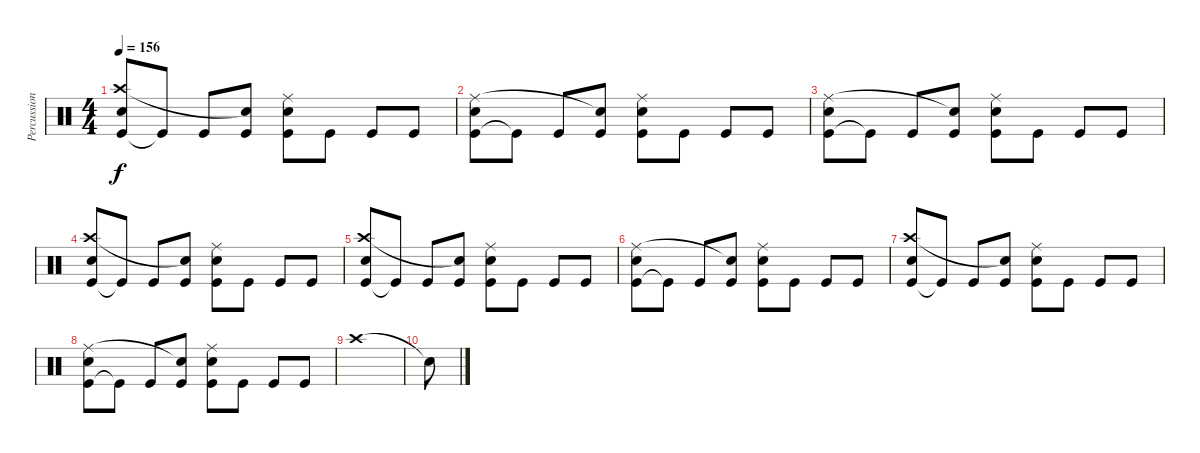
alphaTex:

\track ("Percussion" "Percussion") {instrument percussion}
\staff {score}
\articulation defaults
\ts (4 4)
\tempo 156
\clef neutral
\ks c
("Kick (hit)" "Crash high (hit)" "Electric Snare (hit)").8{dy f} "Kick (hit)"{t}.8 "Kick (hit)".8 ("Kick (hit)" "Snare (hit)"{t}).8 ("Kick (hit)" "Ride (middle)" "Electric Snare (hit)").8 "Kick (hit)".8 "Kick (hit)".8 "Kick (hit)".8 |
("Kick (hit)" "Ride (middle)" "Electric Snare (hit)").8 "Kick (hit)"{t}.8 "Kick (hit)".8 ("Kick (hit)" "Snare (hit)"{t}).8 ("Kick (hit)" "Ride (middle)" "Electric Snare (hit)").8 "Kick (hit)".8 "Kick (hit)".8 "Kick (hit)".8 |
("Kick (hit)" "Ride (middle)" "Electric Snare (hit)").8 "Kick (hit)"{t}.8 "Kick (hit)".8 ("Kick (hit)" "Snare (hit)"{t}).8 ("Kick (hit)" "Ride (middle)" "Electric Snare (hit)").8 "Kick (hit)".8 "Kick (hit)".8 "Kick (hit)".8 |
("Kick (hit)" "Crash high (hit)" "Electric Snare (hit)").8 "Kick (hit)"{t}.8 "Kick (hit)".8 ("Kick (hit)" "Snare (hit)"{t}).8 ("Kick (hit)" "Ride (middle)" "Electric Snare (hit)").8 "Kick (hit)".8 "Kick (hit)".8 "Kick (hit)".8 |
("Kick (hit)" "Crash high (hit)" "Electric Snare (hit)").8 "Kick (hit)"{t}.8 "Kick (hit)".8 ("Kick (hit)" "Snare (hit)"{t}).8 ("Kick (hit)" "Ride (middle)" "Electric Snare (hit)").8 "Kick (hit)".8 "Kick (hit)".8 "Kick (hit)".8 |
("Kick (hit)" "Ride (middle)" "Electric Snare (hit)").8 "Kick (hit)"{t}.8 "Kick (hit)".8 ("Kick (hit)" "Snare (hit)"{t}).8 ("Kick (hit)" "Ride (middle)" "Electric Snare (hit)").8 "Kick (hit)".8 "Kick (hit)".8 "Kick (hit)".8 |
("Kick (hit)" "Crash high (hit)" "Electric Snare (hit)").8 "Kick (hit)"{t}.8 "Kick (hit)".8 ("Kick (hit)" "Snare (hit)"{t}).8 ("Kick (hit)" "Ride (middle)" "Electric Snare (hit)").8 "Kick (hit)".8 "Kick (hit)".8 "Kick (hit)".8 |
("Kick (hit)" "Ride (middle)" "Electric Snare (hit)").8 "Kick (hit)"{t}.8 "Kick (hit)".8 ("Kick (hit)" "Snare (hit)"{t}).8 ("Kick (hit)" "Ride (middle)" "Electric Snare (hit)").8 "Kick (hit)".8 "Kick (hit)".8 "Kick (hit)".8 |
"Crash high (hit)".1 |
"Snare (hit)"{t}.8
